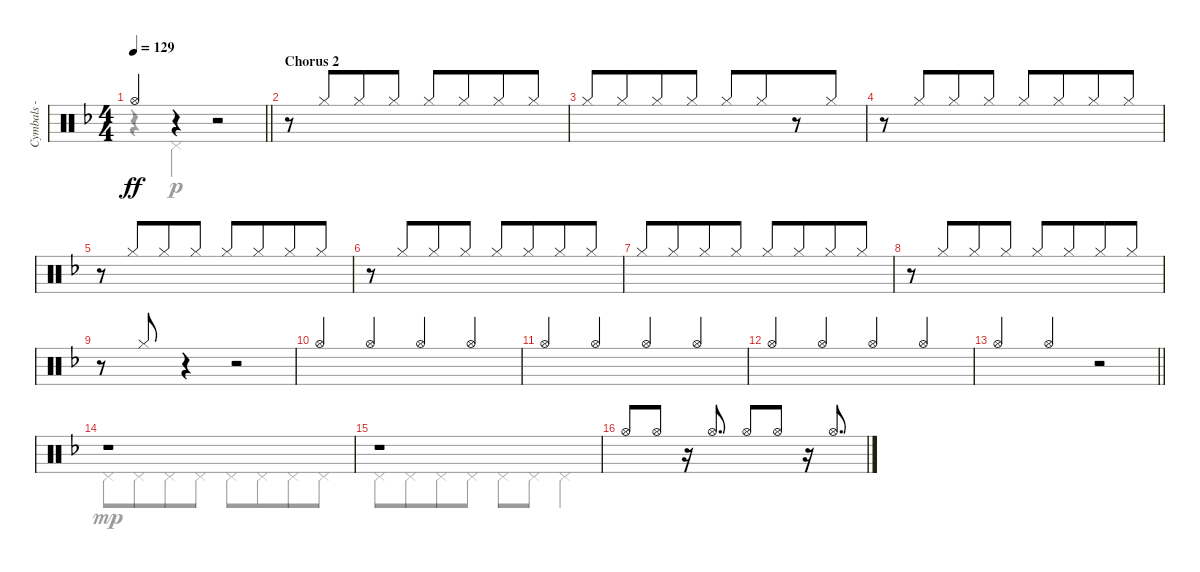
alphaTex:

\track ("Cymbals - hi-hat" "Cymbals - ") {instrument percussion}
\staff {score}
\articulation defaults
\voice
\ts (4 4)
\tempo 129
\clef neutral
\barLineRight lightlight
\ks dminor "Hi-Hat (open)".4{dy ff volume 12 beam Up}
r.4 r.2 |
\section ("" "Chorus 2")
r.8{volume 7} "Hi-Hat (closed)".8{beam Up beam merge} "Hi-Hat (closed)".8{beam Up} "Hi-Hat (closed)".8{beam Up} "Hi-Hat (closed)".8{beam Up} "Hi-Hat (closed)".8{beam Up beam merge} "Hi-Hat (closed)".8{beam Up} "Hi-Hat (closed)".8{beam Up} |
"Hi-Hat (closed)".8{beam Up} "Hi-Hat (closed)".8{beam Up beam merge} "Hi-Hat (closed)".8{beam Up} "Hi-Hat (closed)".8{beam Up} "Hi-Hat (closed)".8{beam Up} "Hi-Hat (closed)".8{beam Up beam merge} r.8 "Hi-Hat (closed)".8{beam Up} |
r.8 "Hi-Hat (closed)".8{beam Up beam merge} "Hi-Hat (closed)".8{beam Up} "Hi-Hat (closed)".8{beam Up} "Hi-Hat (closed)".8{beam Up} "Hi-Hat (closed)".8{beam Up beam merge} "Hi-Hat (closed)".8{beam Up} "Hi-Hat (closed)".8{beam Up} |
r.8 "Hi-Hat (closed)".8{beam Up beam merge} "Hi-Hat (closed)".8{beam Up} "Hi-Hat (closed)".8{beam Up} "Hi-Hat (closed)".8{beam Up} "Hi-Hat (closed)".8{beam Up beam merge} "Hi-Hat (closed)".8{beam Up} "Hi-Hat (closed)".8{beam Up} |
r.8 "Hi-Hat (closed)".8{beam Up beam merge} "Hi-Hat (closed)".8{beam Up} "Hi-Hat (closed)".8{beam Up} "Hi-Hat (closed)".8{beam Up} "Hi-Hat (closed)".8{beam Up beam merge} "Hi-Hat (closed)".8{beam Up} "Hi-Hat (closed)".8{beam Up} |
"Hi-Hat (closed)".8{beam Up} "Hi-Hat (closed)".8{beam Up beam merge} "Hi-Hat (closed)".8{beam Up} "Hi-Hat (closed)".8{beam Up} "Hi-Hat (closed)".8{beam Up} "Hi-Hat (closed)".8{beam Up beam merge} "Hi-Hat (closed)".8{beam Up} "Hi-Hat (closed)".8{beam Up} |
r.8 "Hi-Hat (closed)".8{beam Up beam merge} "Hi-Hat (closed)".8{beam Up} "Hi-Hat (closed)".8{beam Up} "Hi-Hat (closed)".8{beam Up} "Hi-Hat (closed)".8{beam Up beam merge} "Hi-Hat (closed)".8{beam Up} "Hi-Hat (closed)".8{beam Up} |
r.8 "Hi-Hat (closed)".8{beam Up} r.4 r.2 |
"Hi-Hat (open)".4{volume 14 beam Up} "Hi-Hat (open)".4{beam Up} "Hi-Hat (open)".4{beam Up} "Hi-Hat (open)".4{beam Up} |
"Hi-Hat (open)".4{beam Up} "Hi-Hat (open)".4{beam Up} "Hi-Hat (open)".4{beam Up} "Hi-Hat (open)".4{beam Up} |
"Hi-Hat (open)".4{beam Up} "Hi-Hat (open)".4{beam Up} "Hi-Hat (open)".4{beam Up} "Hi-Hat (open)".4{beam Up} |
\barLineRight lightlight "Hi-Hat (open)".4{beam Up} "Hi-Hat (open)".4{beam Up}
r.2 |
r.1 |
r.1 |
"Hi-Hat (open)".8{beam Up} "Hi-Hat (open)".8{beam Up} r.16 "Hi-Hat (open)".8{d beam Up} "Hi-Hat (open)".8{beam Up} "Hi-Hat (open)".8{beam Up} r.16 "Hi-Hat (open)".8{d beam Up}
\voice
\clef neutral
\ottava regular
\simile none
\barLineRight lightlight
\ks dminor
r.4{dy p} "Pedal Hi-Hat (hit)".4{beam Down} r.2 |
|
|
|
|
|
|
|
|
|
|
|
\barLineRight lightlight
|
"Pedal Hi-Hat (hit)".8{dy mp beam Down} "Pedal Hi-Hat (hit)".8{beam Down beam merge} "Pedal Hi-Hat (hit)".8{beam Down} "Pedal Hi-Hat (hit)".8{beam Down} "Pedal Hi-Hat (hit)".8{beam Down} "Pedal Hi-Hat (hit)".8{beam Down beam merge} "Pedal Hi-Hat (hit)".8{beam Down} "Pedal Hi-Hat (hit)".8{beam Down} |
"Pedal Hi-Hat (hit)".8{beam Down} "Pedal Hi-Hat (hit)".8{beam Down beam merge} "Pedal Hi-Hat (hit)".8{beam Down} "Pedal Hi-Hat (hit)".8{beam Down} "Pedal Hi-Hat (hit)".8{beam Down} "Pedal Hi-Hat (hit)".8{beam Down} "Pedal Hi-Hat (hit)".4 |
